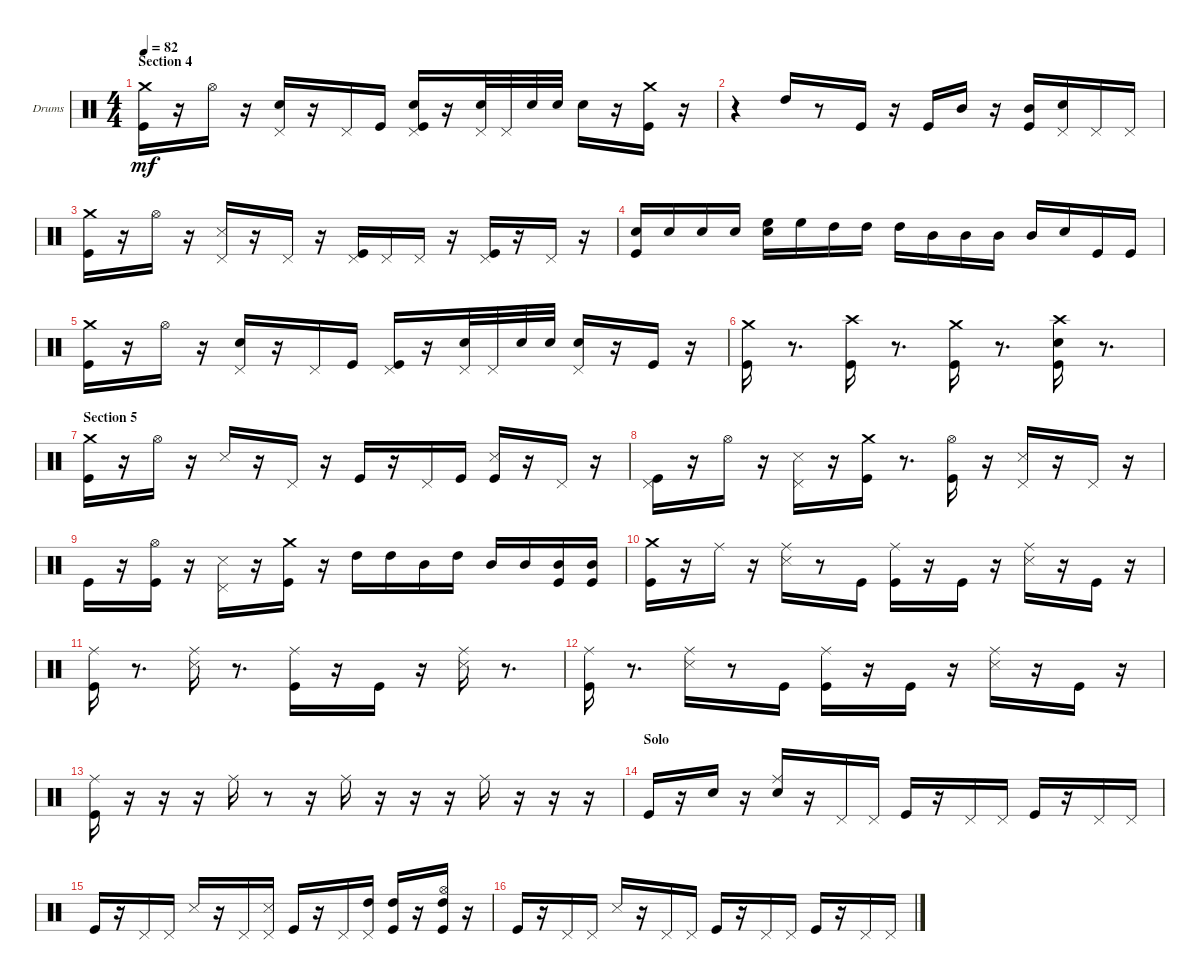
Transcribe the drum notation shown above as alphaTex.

\bracketExtendMode groupsimilarinstruments
\firstSystemTrackNameOrientation horizontal
\otherSystemsTrackNameOrientation horizontal
\track ("Drumkit" "Drums") {instrument percussion}
\staff {score}
\articulation defaults
\ts (4 4)
\section ("" "Section 4")
\tempo 82
\clef neutral
\ks aminor
("Kick (hit)" "Crash medium (hit)").16{dy mf} r.16 "Hi-Hat (open)".16 r.16 ("Snare (hit) 2" "Pedal Hi-Hat (hit)").16 r.16 "Pedal Hi-Hat (hit)".16 "Kick (hit)".16 ("Kick (hit)" "Snare (hit) 2" "Pedal Hi-Hat (hit)").16 r.16 ("Snare (hit) 2" "Pedal Hi-Hat (hit)").32 "Pedal Hi-Hat (hit)".32 "Snare (hit) 2".32 "Snare (hit) 2".32 "Snare (hit) 2".16 r.16 ("Kick (hit)" "Crash medium (hit)").16 r.16 |
r.4 "High Tom (hit)".16 r.8 "Kick (hit)".16 r.16 "Kick (hit)".16 "Mid Tom (hit)".16 r.16 ("Kick (hit)" "Mid Tom (hit)").16 ("Snare (hit) 2" "Pedal Hi-Hat (hit)").16 "Pedal Hi-Hat (hit)".16 "Pedal Hi-Hat (hit)".16 |
("Kick (hit)" "Crash medium (hit)").16 r.16 "Hi-Hat (open)".16 r.16 ("Snare (side stick) 3" "Pedal Hi-Hat (hit)").16 r.16 "Pedal Hi-Hat (hit)".16 r.16 ("Kick (hit)" "Pedal Hi-Hat (hit)").16 "Pedal Hi-Hat (hit)".16 "Pedal Hi-Hat (hit)".16 r.16 ("Kick (hit)" "Pedal Hi-Hat (hit)").16 r.16 "Pedal Hi-Hat (hit)".16 r.16 |
("Kick (hit)" "Snare (hit) 2").16 "Snare (hit) 2".16 "Snare (hit) 2".16 "Snare (hit) 2".16 ("Snare (hit) 2" "High Floor Tom (hit)").16 "High Floor Tom (hit)".16 "High Tom (hit)".16 "High Tom (hit)".16 "High Tom (hit)".16 "Mid Tom (hit)".16 "Mid Tom (hit)".16 "Mid Tom (hit)".16 "Mid Tom (hit)".16 "Snare (hit) 2".16 "Kick (hit)".16 "Kick (hit)".16 |
("Kick (hit)" "Crash medium (hit)").16 r.16 "Hi-Hat (open)".16 r.16 ("Snare (hit) 2" "Pedal Hi-Hat (hit)").16 r.16 "Pedal Hi-Hat (hit)".16 "Kick (hit)".16 ("Kick (hit)" "Pedal Hi-Hat (hit)").16 r.16 ("Snare (hit) 2" "Pedal Hi-Hat (hit)").32 "Pedal Hi-Hat (hit)".32 "Snare (hit) 2".32 "Snare (hit) 2".32 ("Snare (hit) 2" "Pedal Hi-Hat (hit)").16 r.16 "Kick (hit)".16 r.16 |
("Kick (hit)" "Crash medium (hit)").16 r.8{d} ("Kick (hit)" "Crash high (hit)").16 r.8{d} ("Kick (hit)" "Crash medium (hit)").16 r.8{d} ("Kick (hit)" "Snare (hit) 2" "Crash high (hit)").16 r.8{d} |
\section ("" "Section 5")
("Kick (hit)" "Crash medium (hit)").16 r.16 "Hi-Hat (open)".16 r.16 "Snare (side stick) 3".16 r.16 "Pedal Hi-Hat (hit)".16 r.16 "Kick (hit)".16 r.16 "Pedal Hi-Hat (hit)".16 "Kick (hit)".16 ("Kick (hit)" "Snare (side stick) 3").16 r.16 "Pedal Hi-Hat (hit)".16 r.16 |
("Kick (hit)" "Pedal Hi-Hat (hit)").16 r.16 "Hi-Hat (open)".16 r.16 ("Snare (side stick) 3" "Pedal Hi-Hat (hit)").16 r.16 ("Kick (hit)" "Crash medium (hit)").16 r.8{d} ("Kick (hit)" "Hi-Hat (open)").16 r.16 ("Snare (side stick) 3" "Pedal Hi-Hat (hit)").16 r.16 "Pedal Hi-Hat (hit)".16 r.16 |
"Kick (hit)".16 r.16 ("Kick (hit)" "Hi-Hat (open)").16 r.16 ("Snare (side stick) 3" "Pedal Hi-Hat (hit)").16 r.16 ("Kick (hit)" "Crash medium (hit)").16 r.16 "High Tom (hit)".16 "High Tom (hit)".16 "Mid Tom (hit)".16 "High Tom (hit)".16 "Mid Tom (hit)".16 "Mid Tom (hit)".16 ("Kick (hit)" "Mid Tom (hit)").16 ("Kick (hit)" "Mid Tom (hit)").16 |
("Kick (hit)" "Crash medium (hit)").16 r.16 "Ride (middle)".16 r.16 ("Snare (side stick) 3" "Ride (middle)").16 r.8 "Kick (hit)".16 ("Kick (hit)" "Ride (middle)").16 r.16 "Kick (hit)".16 r.16 ("Snare (side stick) 3" "Ride (middle)").16 r.16 "Kick (hit)".16 r.16 |
("Kick (hit)" "Ride (middle)").16 r.8{d} ("Snare (side stick) 3" "Ride (middle)").16 r.8{d} ("Kick (hit)" "Ride (middle)").16 r.16 "Kick (hit)".16 r.16 ("Snare (side stick) 3" "Ride (middle)").16 r.8{d} |
("Kick (hit)" "Ride (middle)").16 r.8{d} ("Snare (side stick) 3" "Ride (middle)").16 r.8 "Kick (hit)".16 ("Kick (hit)" "Ride (middle)").16 r.16 "Kick (hit)".16 r.16 ("Snare (side stick) 3" "Ride (middle)").16 r.16 "Kick (hit)".16 r.16 |
("Kick (hit)" "Ride (middle)").16 r.16 r.16 r.16 "Ride (middle)".16 r.8 r.16 "Ride (middle)".16 r.16 r.16 r.16 "Ride (middle)".16 r.16 r.16 r.16 |
\section ("" "Solo")
"Kick (hit)".16 r.16 "Snare (hit) 2".16 r.16 ("Snare (hit) 2" "Ride (middle)").16 r.16 "Pedal Hi-Hat (hit)".16 "Pedal Hi-Hat (hit)".16 "Kick (hit)".16 r.16 "Pedal Hi-Hat (hit)".16 "Pedal Hi-Hat (hit)".16 "Kick (hit)".16 r.16 "Pedal Hi-Hat (hit)".16 "Pedal Hi-Hat (hit)".16 |
"Kick (hit)".16 r.16 "Pedal Hi-Hat (hit)".16 "Pedal Hi-Hat (hit)".16 "Snare (side stick) 3".16 r.16 "Pedal Hi-Hat (hit)".16 ("Snare (side stick) 3" "Pedal Hi-Hat (hit)").16 "Kick (hit)".16 r.16 "Pedal Hi-Hat (hit)".16 ("Pedal Hi-Hat (hit)" "High Tom (hit)").16 ("Kick (hit)" "High Tom (hit)").16 r.16 ("Kick (hit)" "Hi-Hat (open)" "High Tom (hit)").16 r.16 |
"Kick (hit)".16 r.16 "Pedal Hi-Hat (hit)".16 "Pedal Hi-Hat (hit)".16 "Snare (side stick) 3".16 r.16 "Pedal Hi-Hat (hit)".16 "Pedal Hi-Hat (hit)".16 "Kick (hit)".16 r.16 "Pedal Hi-Hat (hit)".16 "Pedal Hi-Hat (hit)".16 "Kick (hit)".16 r.16 "Pedal Hi-Hat (hit)".16 "Pedal Hi-Hat (hit)".16
